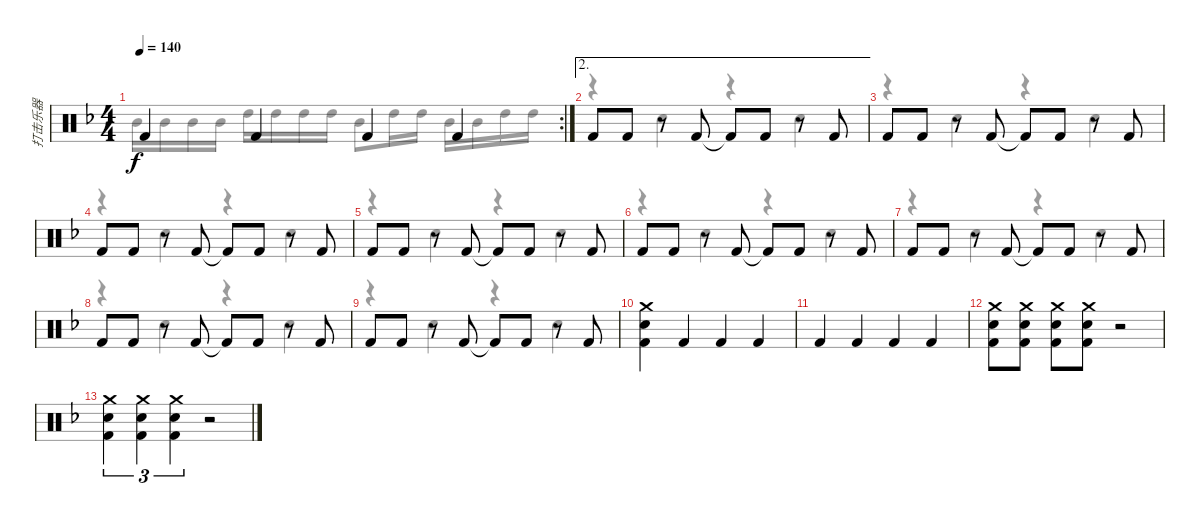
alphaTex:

\track ("打击乐器" "打击乐器") {instrument percussion}
\staff {score}
\articulation defaults
\voice
\rc 2
\ts (4 4)
\tempo 140
\clef neutral
\ks f "Kick (hit) 2".4{dy f} "Kick (hit) 2".4 "Kick (hit) 2".4 "Kick (hit) 2".4
|
\ae 2 "Kick (hit) 2".8 "Kick (hit) 2".8
r.8 "Kick (hit) 2".8 "Kick (hit) 2"{t}.8 "Kick (hit) 2".8 r.8 "Kick (hit) 2".8 |
"Kick (hit) 2".8 "Kick (hit) 2".8 r.8 "Kick (hit) 2".8 "Kick (hit) 2"{t}.8 "Kick (hit) 2".8 r.8 "Kick (hit) 2".8 |
"Kick (hit) 2".8 "Kick (hit) 2".8 r.8 "Kick (hit) 2".8 "Kick (hit) 2"{t}.8 "Kick (hit) 2".8 r.8 "Kick (hit) 2".8 |
"Kick (hit) 2".8 "Kick (hit) 2".8 r.8 "Kick (hit) 2".8 "Kick (hit) 2"{t}.8 "Kick (hit) 2".8 r.8 "Kick (hit) 2".8 |
"Kick (hit) 2".8 "Kick (hit) 2".8 r.8 "Kick (hit) 2".8 "Kick (hit) 2"{t}.8 "Kick (hit) 2".8 r.8 "Kick (hit) 2".8 |
"Kick (hit) 2".8 "Kick (hit) 2".8 r.8 "Kick (hit) 2".8 "Kick (hit) 2"{t}.8 "Kick (hit) 2".8 r.8 "Kick (hit) 2".8 |
"Kick (hit) 2".8 "Kick (hit) 2".8 r.8 "Kick (hit) 2".8 "Kick (hit) 2"{t}.8 "Kick (hit) 2".8 r.8 "Kick (hit) 2".8 |
"Kick (hit) 2".8 "Kick (hit) 2".8 r.8 "Kick (hit) 2".8 "Kick (hit) 2"{t}.8 "Kick (hit) 2".8 r.8 "Kick (hit) 2".8 |
("Snare (hit) 2" "Crash medium (hit)" "Kick (hit) 2").4 "Kick (hit) 2".4 "Kick (hit) 2".4 "Kick (hit) 2".4 |
"Kick (hit) 2".4 "Kick (hit) 2".4 "Kick (hit) 2".4 "Kick (hit) 2".4 |
("Snare (hit) 2" "Crash medium (hit)" "Kick (hit) 2").8 ("Snare (hit) 2" "Crash medium (hit)" "Kick (hit) 2").8 ("Snare (hit) 2" "Crash medium (hit)" "Kick (hit) 2").8 ("Snare (hit) 2" "Crash medium (hit)" "Kick (hit) 2").8 r.2 |
("Snare (hit) 2" "Crash medium (hit)" "Kick (hit) 2").4{tu (3 2)} ("Snare (hit) 2" "Crash medium (hit)" "Kick (hit) 2").4{tu (3 2)} ("Snare (hit) 2" "Crash medium (hit)" "Kick (hit) 2").4{tu (3 2)} r.2
\voice
\clef neutral
\ottava regular
\simile none
\ks f "Mid Tom (hit)".16{dy f} "Mid Tom (hit)".16 "Mid Tom (hit)".16 "Mid Tom (hit)".16 "High Tom (hit)".16 "High Tom (hit)".16 "High Tom (hit)".16 "High Tom (hit)".16 "Mid Tom (hit)".8 "High Tom (hit)".16 "High Tom (hit)".16 "Mid Tom (hit)".16 "Mid Tom (hit)".16 "High Tom (hit)".16 "High Tom (hit)".16
|
r.4 "Snare (hit) 2".4 r.4 "Snare (hit) 2".4 |
r.4 "Snare (hit) 2".4 r.4 "Snare (hit) 2".4 |
r.4 "Snare (hit) 2".4 r.4 "Snare (hit) 2".4 |
r.4 "Snare (hit) 2".4 r.4 "Snare (hit) 2".4 |
r.4 "Snare (hit) 2".4 r.4 "Snare (hit) 2".4 |
r.4 "Snare (hit) 2".4 r.4 "Snare (hit) 2".4 |
r.4 "Snare (hit) 2".4 r.4 "Snare (hit) 2".4 |
r.4 "Snare (hit) 2".4 r.4 "Snare (hit) 2".4 |
|
|
|
